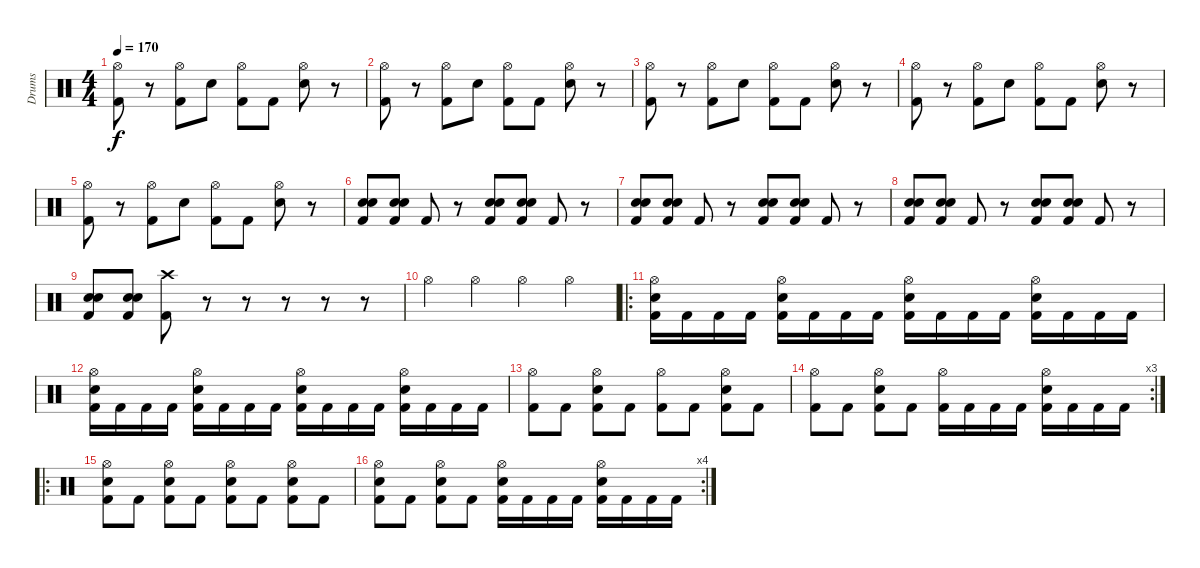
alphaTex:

\track ("Drums" "Drums") {instrument percussion}
\staff {score}
\articulation defaults
\ts (4 4)
\tempo 170
\clef neutral
\ks c
("Hi-Hat (open)" "Kick (hit) 2").8{dy f} r.8 ("Hi-Hat (open)" "Kick (hit) 2").8 "Snare (hit) 2".8 ("Hi-Hat (open)" "Kick (hit) 2").8 "Kick (hit) 2".8 ("Hi-Hat (open)" "Snare (hit) 2").8 r.8 |
("Hi-Hat (open)" "Kick (hit) 2").8 r.8 ("Hi-Hat (open)" "Kick (hit) 2").8 "Snare (hit) 2".8 ("Hi-Hat (open)" "Kick (hit) 2").8 "Kick (hit) 2".8 ("Hi-Hat (open)" "Snare (hit) 2").8 r.8 |
("Hi-Hat (open)" "Kick (hit) 2").8 r.8 ("Hi-Hat (open)" "Kick (hit) 2").8 "Snare (hit) 2".8 ("Hi-Hat (open)" "Kick (hit) 2").8 "Kick (hit) 2".8 ("Hi-Hat (open)" "Snare (hit) 2").8 r.8 |
("Hi-Hat (open)" "Kick (hit) 2").8 r.8 ("Hi-Hat (open)" "Kick (hit) 2").8 "Snare (hit) 2".8 ("Hi-Hat (open)" "Kick (hit) 2").8 "Kick (hit) 2".8 ("Hi-Hat (open)" "Snare (hit) 2").8 r.8 |
("Hi-Hat (open)" "Kick (hit) 2").8 r.8 ("Hi-Hat (open)" "Kick (hit) 2").8 "Snare (hit) 2".8 ("Hi-Hat (open)" "Kick (hit) 2").8 "Kick (hit) 2".8 ("Hi-Hat (open)" "Snare (hit) 2").8 r.8 |
("Snare (hit) 2" "Snare (hit) 2" "Kick (hit) 2").8 ("Snare (hit) 2" "Snare (hit) 2" "Kick (hit) 2").8 "Kick (hit) 2".8 r.8 ("Snare (hit) 2" "Snare (hit) 2" "Kick (hit) 2").8 ("Snare (hit) 2" "Snare (hit) 2" "Kick (hit) 2").8 "Kick (hit) 2".8 r.8 |
("Snare (hit) 2" "Snare (hit) 2" "Kick (hit) 2").8 ("Snare (hit) 2" "Snare (hit) 2" "Kick (hit) 2").8 "Kick (hit) 2".8 r.8 ("Snare (hit) 2" "Snare (hit) 2" "Kick (hit) 2").8 ("Snare (hit) 2" "Snare (hit) 2" "Kick (hit) 2").8 "Kick (hit) 2".8 r.8 |
("Snare (hit) 2" "Snare (hit) 2" "Kick (hit) 2").8 ("Snare (hit) 2" "Snare (hit) 2" "Kick (hit) 2").8 "Kick (hit) 2".8 r.8 ("Snare (hit) 2" "Snare (hit) 2" "Kick (hit) 2").8 ("Snare (hit) 2" "Snare (hit) 2" "Kick (hit) 2").8 "Kick (hit) 2".8 r.8 |
("Snare (hit) 2" "Snare (hit) 2" "Kick (hit) 2").8 ("Snare (hit) 2" "Snare (hit) 2" "Kick (hit) 2").8 ("Crash high (hit)" "Kick (hit) 2").8 r.8 r.8 r.8 r.8 r.8 |
"Hi-Hat (open)".4 "Hi-Hat (open)".4 "Hi-Hat (open)".4 "Hi-Hat (open)".4 |
\ro
("Hi-Hat (open)" "Snare (hit) 2" "Kick (hit) 2").16 "Kick (hit) 2".16 "Kick (hit) 2".16 "Kick (hit) 2".16 ("Hi-Hat (open)" "Snare (hit) 2" "Kick (hit) 2").16 "Kick (hit) 2".16 "Kick (hit) 2".16 "Kick (hit) 2".16 ("Hi-Hat (open)" "Snare (hit) 2" "Kick (hit) 2").16 "Kick (hit) 2".16 "Kick (hit) 2".16 "Kick (hit) 2".16 ("Hi-Hat (open)" "Snare (hit) 2" "Kick (hit) 2").16 "Kick (hit) 2".16 "Kick (hit) 2".16 "Kick (hit) 2".16 |
("Hi-Hat (open)" "Snare (hit) 2" "Kick (hit) 2").16 "Kick (hit) 2".16 "Kick (hit) 2".16 "Kick (hit) 2".16 ("Hi-Hat (open)" "Snare (hit) 2" "Kick (hit) 2").16 "Kick (hit) 2".16 "Kick (hit) 2".16 "Kick (hit) 2".16 ("Hi-Hat (open)" "Snare (hit) 2" "Kick (hit) 2").16 "Kick (hit) 2".16 "Kick (hit) 2".16 "Kick (hit) 2".16 ("Hi-Hat (open)" "Snare (hit) 2" "Kick (hit) 2").16 "Kick (hit) 2".16 "Kick (hit) 2".16 "Kick (hit) 2".16 |
("Hi-Hat (open)" "Kick (hit) 2").8 "Kick (hit) 2".8 ("Hi-Hat (open)" "Snare (hit) 2" "Kick (hit) 2").8 "Kick (hit) 2".8 ("Hi-Hat (open)" "Kick (hit) 2").8 "Kick (hit) 2".8 ("Hi-Hat (open)" "Snare (hit) 2" "Kick (hit) 2").8 "Kick (hit) 2".8 |
\rc 3
("Hi-Hat (open)" "Kick (hit) 2").8 "Kick (hit) 2".8 ("Hi-Hat (open)" "Snare (hit) 2" "Kick (hit) 2").8 "Kick (hit) 2".8 ("Hi-Hat (open)" "Kick (hit) 2").16 "Kick (hit) 2".16 "Kick (hit) 2".16 "Kick (hit) 2".16 ("Hi-Hat (open)" "Snare (hit) 2" "Kick (hit) 2").16 "Kick (hit) 2".16 "Kick (hit) 2".16 "Kick (hit) 2".16 |
\ro
("Hi-Hat (open)" "Snare (hit) 2" "Kick (hit) 2").8 "Kick (hit) 2".8 ("Hi-Hat (open)" "Snare (hit) 2" "Kick (hit) 2").8 "Kick (hit) 2".8 ("Hi-Hat (open)" "Snare (hit) 2" "Kick (hit) 2").8 "Kick (hit) 2".8 ("Hi-Hat (open)" "Snare (hit) 2" "Kick (hit) 2").8 "Kick (hit) 2".8 |
\rc 4
("Hi-Hat (open)" "Snare (hit) 2" "Kick (hit) 2").8 "Kick (hit) 2".8 ("Hi-Hat (open)" "Snare (hit) 2" "Kick (hit) 2").8 "Kick (hit) 2".8 ("Hi-Hat (open)" "Snare (hit) 2" "Kick (hit) 2").16 "Kick (hit) 2".16 "Kick (hit) 2".16 "Kick (hit) 2".16 ("Hi-Hat (open)" "Snare (hit) 2" "Kick (hit) 2").16 "Kick (hit) 2".16 "Kick (hit) 2".16 "Kick (hit) 2".16
